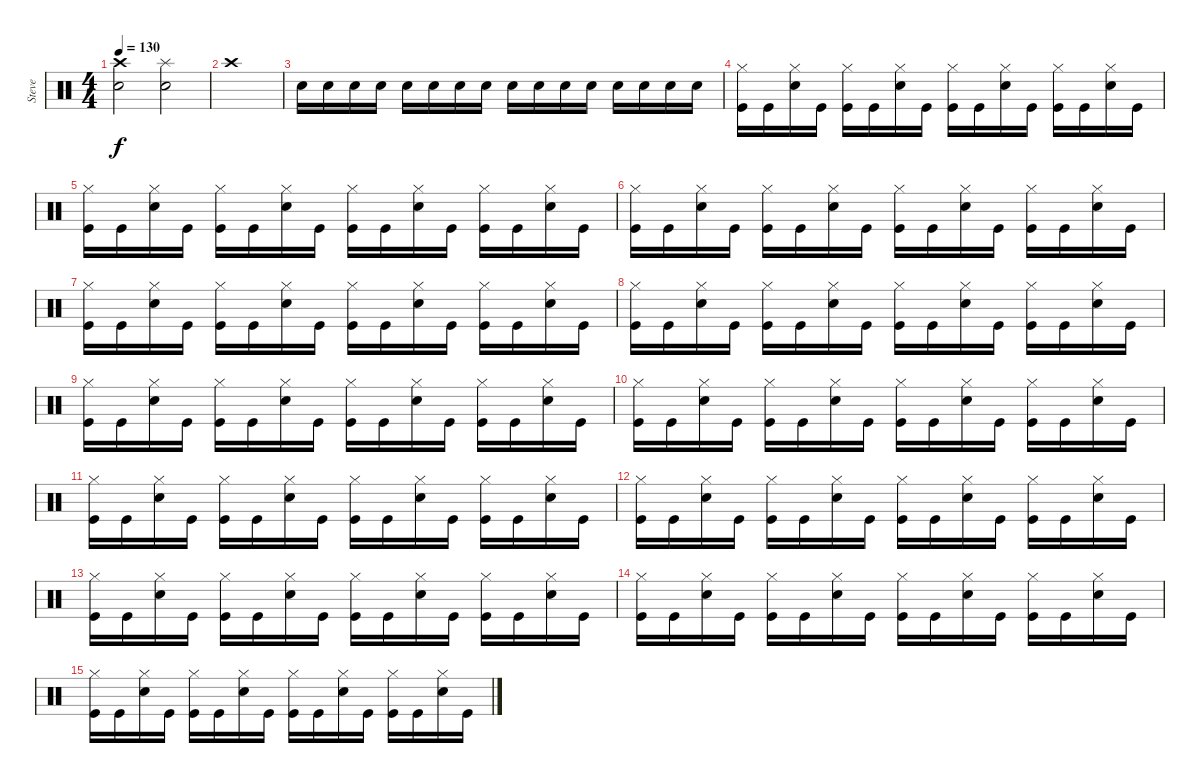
\track ("Steve" "Steve") {instrument percussion}
\staff {score}
\articulation defaults
\ts (4 4)
\tempo 130
\clef neutral
\ks c
("Crash high (hit)" "Snare (hit) 2").2{dy f} ("Splash (hit)" "Snare (hit) 2").2 |
"Crash high (hit)".1 |
"Snare (hit) 2".16 "Snare (hit) 2".16 "Snare (hit) 2".16 "Snare (hit) 2".16 "Snare (hit) 2".16 "Snare (hit) 2".16 "Snare (hit) 2".16 "Snare (hit) 2".16 "Snare (hit) 2".16 "Snare (hit) 2".16 "Snare (hit) 2".16 "Snare (hit) 2".16 "Snare (hit) 2".16 "Snare (hit) 2".16 "Snare (hit) 2".16 "Snare (hit) 2".16 |
("Hi-Hat (closed)" "Kick (hit)").16 "Kick (hit)".16 ("Hi-Hat (closed)" "Snare (hit) 2").16 "Kick (hit)".16 ("Hi-Hat (closed)" "Kick (hit)").16 "Kick (hit)".16 ("Hi-Hat (closed)" "Snare (hit) 2").16 "Kick (hit)".16 ("Hi-Hat (closed)" "Kick (hit)").16 "Kick (hit)".16 ("Hi-Hat (closed)" "Snare (hit) 2").16 "Kick (hit)".16 ("Hi-Hat (closed)" "Kick (hit)").16 "Kick (hit)".16 ("Hi-Hat (closed)" "Snare (hit) 2").16 "Kick (hit)".16 |
("Hi-Hat (closed)" "Kick (hit)").16 "Kick (hit)".16 ("Hi-Hat (closed)" "Snare (hit) 2").16 "Kick (hit)".16 ("Hi-Hat (closed)" "Kick (hit)").16 "Kick (hit)".16 ("Hi-Hat (closed)" "Snare (hit) 2").16 "Kick (hit)".16 ("Hi-Hat (closed)" "Kick (hit)").16 "Kick (hit)".16 ("Hi-Hat (closed)" "Snare (hit) 2").16 "Kick (hit)".16 ("Hi-Hat (closed)" "Kick (hit)").16 "Kick (hit)".16 ("Hi-Hat (closed)" "Snare (hit) 2").16 "Kick (hit)".16 |
("Hi-Hat (closed)" "Kick (hit)").16 "Kick (hit)".16 ("Hi-Hat (closed)" "Snare (hit) 2").16 "Kick (hit)".16 ("Hi-Hat (closed)" "Kick (hit)").16 "Kick (hit)".16 ("Hi-Hat (closed)" "Snare (hit) 2").16 "Kick (hit)".16 ("Hi-Hat (closed)" "Kick (hit)").16 "Kick (hit)".16 ("Hi-Hat (closed)" "Snare (hit) 2").16 "Kick (hit)".16 ("Hi-Hat (closed)" "Kick (hit)").16 "Kick (hit)".16 ("Hi-Hat (closed)" "Snare (hit) 2").16 "Kick (hit)".16 |
("Hi-Hat (closed)" "Kick (hit)").16 "Kick (hit)".16 ("Hi-Hat (closed)" "Snare (hit) 2").16 "Kick (hit)".16 ("Hi-Hat (closed)" "Kick (hit)").16 "Kick (hit)".16 ("Hi-Hat (closed)" "Snare (hit) 2").16 "Kick (hit)".16 ("Hi-Hat (closed)" "Kick (hit)").16 "Kick (hit)".16 ("Hi-Hat (closed)" "Snare (hit) 2").16 "Kick (hit)".16 ("Hi-Hat (closed)" "Kick (hit)").16 "Kick (hit)".16 ("Hi-Hat (closed)" "Snare (hit) 2").16 "Kick (hit)".16 |
("Hi-Hat (closed)" "Kick (hit)").16 "Kick (hit)".16 ("Hi-Hat (closed)" "Snare (hit) 2").16 "Kick (hit)".16 ("Hi-Hat (closed)" "Kick (hit)").16 "Kick (hit)".16 ("Hi-Hat (closed)" "Snare (hit) 2").16 "Kick (hit)".16 ("Hi-Hat (closed)" "Kick (hit)").16 "Kick (hit)".16 ("Hi-Hat (closed)" "Snare (hit) 2").16 "Kick (hit)".16 ("Hi-Hat (closed)" "Kick (hit)").16 "Kick (hit)".16 ("Hi-Hat (closed)" "Snare (hit) 2").16 "Kick (hit)".16 |
("Hi-Hat (closed)" "Kick (hit)").16 "Kick (hit)".16 ("Hi-Hat (closed)" "Snare (hit) 2").16 "Kick (hit)".16 ("Hi-Hat (closed)" "Kick (hit)").16 "Kick (hit)".16 ("Hi-Hat (closed)" "Snare (hit) 2").16 "Kick (hit)".16 ("Hi-Hat (closed)" "Kick (hit)").16 "Kick (hit)".16 ("Hi-Hat (closed)" "Snare (hit) 2").16 "Kick (hit)".16 ("Hi-Hat (closed)" "Kick (hit)").16 "Kick (hit)".16 ("Hi-Hat (closed)" "Snare (hit) 2").16 "Kick (hit)".16 |
("Hi-Hat (closed)" "Kick (hit)").16 "Kick (hit)".16 ("Hi-Hat (closed)" "Snare (hit) 2").16 "Kick (hit)".16 ("Hi-Hat (closed)" "Kick (hit)").16 "Kick (hit)".16 ("Hi-Hat (closed)" "Snare (hit) 2").16 "Kick (hit)".16 ("Hi-Hat (closed)" "Kick (hit)").16 "Kick (hit)".16 ("Hi-Hat (closed)" "Snare (hit) 2").16 "Kick (hit)".16 ("Hi-Hat (closed)" "Kick (hit)").16 "Kick (hit)".16 ("Hi-Hat (closed)" "Snare (hit) 2").16 "Kick (hit)".16 |
("Hi-Hat (closed)" "Kick (hit)").16 "Kick (hit)".16 ("Hi-Hat (closed)" "Snare (hit) 2").16 "Kick (hit)".16 ("Hi-Hat (closed)" "Kick (hit)").16 "Kick (hit)".16 ("Hi-Hat (closed)" "Snare (hit) 2").16 "Kick (hit)".16 ("Hi-Hat (closed)" "Kick (hit)").16 "Kick (hit)".16 ("Hi-Hat (closed)" "Snare (hit) 2").16 "Kick (hit)".16 ("Hi-Hat (closed)" "Kick (hit)").16 "Kick (hit)".16 ("Hi-Hat (closed)" "Snare (hit) 2").16 "Kick (hit)".16 |
("Hi-Hat (closed)" "Kick (hit)").16 "Kick (hit)".16 ("Hi-Hat (closed)" "Snare (hit) 2").16 "Kick (hit)".16 ("Hi-Hat (closed)" "Kick (hit)").16 "Kick (hit)".16 ("Hi-Hat (closed)" "Snare (hit) 2").16 "Kick (hit)".16 ("Hi-Hat (closed)" "Kick (hit)").16 "Kick (hit)".16 ("Hi-Hat (closed)" "Snare (hit) 2").16 "Kick (hit)".16 ("Hi-Hat (closed)" "Kick (hit)").16 "Kick (hit)".16 ("Hi-Hat (closed)" "Snare (hit) 2").16 "Kick (hit)".16 |
("Hi-Hat (closed)" "Kick (hit)").16 "Kick (hit)".16 ("Hi-Hat (closed)" "Snare (hit) 2").16 "Kick (hit)".16 ("Hi-Hat (closed)" "Kick (hit)").16 "Kick (hit)".16 ("Hi-Hat (closed)" "Snare (hit) 2").16 "Kick (hit)".16 ("Hi-Hat (closed)" "Kick (hit)").16 "Kick (hit)".16 ("Hi-Hat (closed)" "Snare (hit) 2").16 "Kick (hit)".16 ("Hi-Hat (closed)" "Kick (hit)").16 "Kick (hit)".16 ("Hi-Hat (closed)" "Snare (hit) 2").16 "Kick (hit)".16 |
("Hi-Hat (closed)" "Kick (hit)").16 "Kick (hit)".16 ("Hi-Hat (closed)" "Snare (hit) 2").16 "Kick (hit)".16 ("Hi-Hat (closed)" "Kick (hit)").16 "Kick (hit)".16 ("Hi-Hat (closed)" "Snare (hit) 2").16 "Kick (hit)".16 ("Hi-Hat (closed)" "Kick (hit)").16 "Kick (hit)".16 ("Hi-Hat (closed)" "Snare (hit) 2").16 "Kick (hit)".16 ("Hi-Hat (closed)" "Kick (hit)").16 "Kick (hit)".16 ("Hi-Hat (closed)" "Snare (hit) 2").16 "Kick (hit)".16 |
("Hi-Hat (closed)" "Kick (hit)").16 "Kick (hit)".16 ("Hi-Hat (closed)" "Snare (hit) 2").16 "Kick (hit)".16 ("Hi-Hat (closed)" "Kick (hit)").16 "Kick (hit)".16 ("Hi-Hat (closed)" "Snare (hit) 2").16 "Kick (hit)".16 ("Hi-Hat (closed)" "Kick (hit)").16 "Kick (hit)".16 ("Hi-Hat (closed)" "Snare (hit) 2").16 "Kick (hit)".16 ("Hi-Hat (closed)" "Kick (hit)").16 "Kick (hit)".16 ("Hi-Hat (closed)" "Snare (hit) 2").16 "Kick (hit)".16
